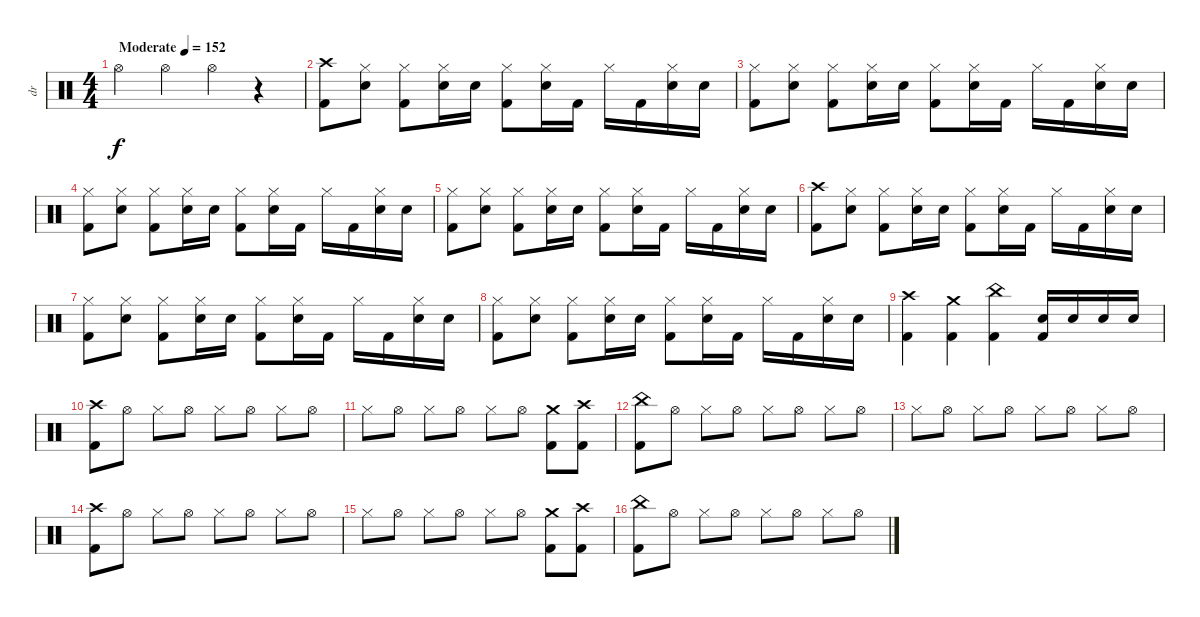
\track ("dr" "dr") {instrument percussion}
\staff {score}
\articulation defaults
\ts (4 4)
\tempo (152 "Moderate")
\clef neutral
\ks c "Hi-Hat (open)".4{dy f} "Hi-Hat (open)".4 "Hi-Hat (open)".4
r.4 |
("Crash high (hit)" "Kick (hit) 2").8 ("Hi-Hat (closed)" "Electric Snare (hit)").8 ("Hi-Hat (closed)" "Kick (hit) 2").8 ("Hi-Hat (closed)" "Electric Snare (hit)").16 "Electric Snare (hit)".16 ("Hi-Hat (closed)" "Kick (hit) 2").8 ("Hi-Hat (closed)" "Electric Snare (hit)").16 "Kick (hit) 2".16 "Hi-Hat (closed)".16 "Kick (hit) 2".16 ("Hi-Hat (closed)" "Electric Snare (hit)").16 "Electric Snare (hit)".16 |
("Hi-Hat (closed)" "Kick (hit) 2").8 ("Hi-Hat (closed)" "Electric Snare (hit)").8 ("Hi-Hat (closed)" "Kick (hit) 2").8 ("Hi-Hat (closed)" "Electric Snare (hit)").16 "Electric Snare (hit)".16 ("Hi-Hat (closed)" "Kick (hit) 2").8 ("Hi-Hat (closed)" "Electric Snare (hit)").16 "Kick (hit) 2".16 "Hi-Hat (closed)".16 "Kick (hit) 2".16 ("Hi-Hat (closed)" "Electric Snare (hit)").16 "Electric Snare (hit)".16 |
("Hi-Hat (closed)" "Kick (hit) 2").8 ("Hi-Hat (closed)" "Electric Snare (hit)").8 ("Hi-Hat (closed)" "Kick (hit) 2").8 ("Hi-Hat (closed)" "Electric Snare (hit)").16 "Electric Snare (hit)".16 ("Hi-Hat (closed)" "Kick (hit) 2").8 ("Hi-Hat (closed)" "Electric Snare (hit)").16 "Kick (hit) 2".16 "Hi-Hat (closed)".16 "Kick (hit) 2".16 ("Hi-Hat (closed)" "Electric Snare (hit)").16 "Electric Snare (hit)".16 |
("Hi-Hat (closed)" "Kick (hit) 2").8 ("Hi-Hat (closed)" "Electric Snare (hit)").8 ("Hi-Hat (closed)" "Kick (hit) 2").8 ("Hi-Hat (closed)" "Electric Snare (hit)").16 "Electric Snare (hit)".16 ("Hi-Hat (closed)" "Kick (hit) 2").8 ("Hi-Hat (closed)" "Electric Snare (hit)").16 "Kick (hit) 2".16 "Hi-Hat (closed)".16 "Kick (hit) 2".16 ("Hi-Hat (closed)" "Electric Snare (hit)").16 "Electric Snare (hit)".16 |
("Crash high (hit)" "Kick (hit) 2").8 ("Hi-Hat (closed)" "Electric Snare (hit)").8 ("Hi-Hat (closed)" "Kick (hit) 2").8 ("Hi-Hat (closed)" "Electric Snare (hit)").16 "Electric Snare (hit)".16 ("Hi-Hat (closed)" "Kick (hit) 2").8 ("Hi-Hat (closed)" "Electric Snare (hit)").16 "Kick (hit) 2".16 "Hi-Hat (closed)".16 "Kick (hit) 2".16 ("Hi-Hat (closed)" "Electric Snare (hit)").16 "Electric Snare (hit)".16 |
("Hi-Hat (closed)" "Kick (hit) 2").8 ("Hi-Hat (closed)" "Electric Snare (hit)").8 ("Hi-Hat (closed)" "Kick (hit) 2").8 ("Hi-Hat (closed)" "Electric Snare (hit)").16 "Electric Snare (hit)".16 ("Hi-Hat (closed)" "Kick (hit) 2").8 ("Hi-Hat (closed)" "Electric Snare (hit)").16 "Kick (hit) 2".16 "Hi-Hat (closed)".16 "Kick (hit) 2".16 ("Hi-Hat (closed)" "Electric Snare (hit)").16 "Electric Snare (hit)".16 |
("Hi-Hat (closed)" "Kick (hit) 2").8 ("Hi-Hat (closed)" "Electric Snare (hit)").8 ("Hi-Hat (closed)" "Kick (hit) 2").8 ("Hi-Hat (closed)" "Electric Snare (hit)").16 "Electric Snare (hit)".16 ("Hi-Hat (closed)" "Kick (hit) 2").8 ("Hi-Hat (closed)" "Electric Snare (hit)").16 "Kick (hit) 2".16 "Hi-Hat (closed)".16 "Kick (hit) 2".16 ("Hi-Hat (closed)" "Electric Snare (hit)").16 "Electric Snare (hit)".16 |
("Crash high (hit)" "Kick (hit) 2").4 ("Crash medium (hit)" "Kick (hit) 2").4 ("China (hit)" "Kick (hit) 2").4 ("Kick (hit) 2" "Electric Snare (hit)").16 "Electric Snare (hit)".16 "Electric Snare (hit)".16 "Electric Snare (hit)".16 |
("Crash high (hit)" "Kick (hit) 2").8 "Hi-Hat (open)".8 "Hi-Hat (closed)".8 "Hi-Hat (open)".8 "Hi-Hat (closed)".8 "Hi-Hat (open)".8 "Hi-Hat (closed)".8 "Hi-Hat (open)".8 |
"Hi-Hat (closed)".8 "Hi-Hat (open)".8 "Hi-Hat (closed)".8 "Hi-Hat (open)".8 "Hi-Hat (closed)".8 "Hi-Hat (open)".8 ("Crash medium (hit)" "Kick (hit) 2").8 ("Crash high (hit)" "Kick (hit) 2").8 |
("China (hit)" "Kick (hit) 2").8 "Hi-Hat (open)".8 "Hi-Hat (closed)".8 "Hi-Hat (open)".8 "Hi-Hat (closed)".8 "Hi-Hat (open)".8 "Hi-Hat (closed)".8 "Hi-Hat (open)".8 |
"Hi-Hat (closed)".8 "Hi-Hat (open)".8 "Hi-Hat (closed)".8 "Hi-Hat (open)".8 "Hi-Hat (closed)".8 "Hi-Hat (open)".8 "Hi-Hat (closed)".8 "Hi-Hat (open)".8 |
("Crash high (hit)" "Kick (hit) 2").8 "Hi-Hat (open)".8 "Hi-Hat (closed)".8 "Hi-Hat (open)".8 "Hi-Hat (closed)".8 "Hi-Hat (open)".8 "Hi-Hat (closed)".8 "Hi-Hat (open)".8 |
"Hi-Hat (closed)".8 "Hi-Hat (open)".8 "Hi-Hat (closed)".8 "Hi-Hat (open)".8 "Hi-Hat (closed)".8 "Hi-Hat (open)".8 ("Crash medium (hit)" "Kick (hit) 2").8 ("Crash high (hit)" "Kick (hit) 2").8 |
("China (hit)" "Kick (hit) 2").8 "Hi-Hat (open)".8 "Hi-Hat (closed)".8 "Hi-Hat (open)".8 "Hi-Hat (closed)".8 "Hi-Hat (open)".8 "Hi-Hat (closed)".8 "Hi-Hat (open)".8
